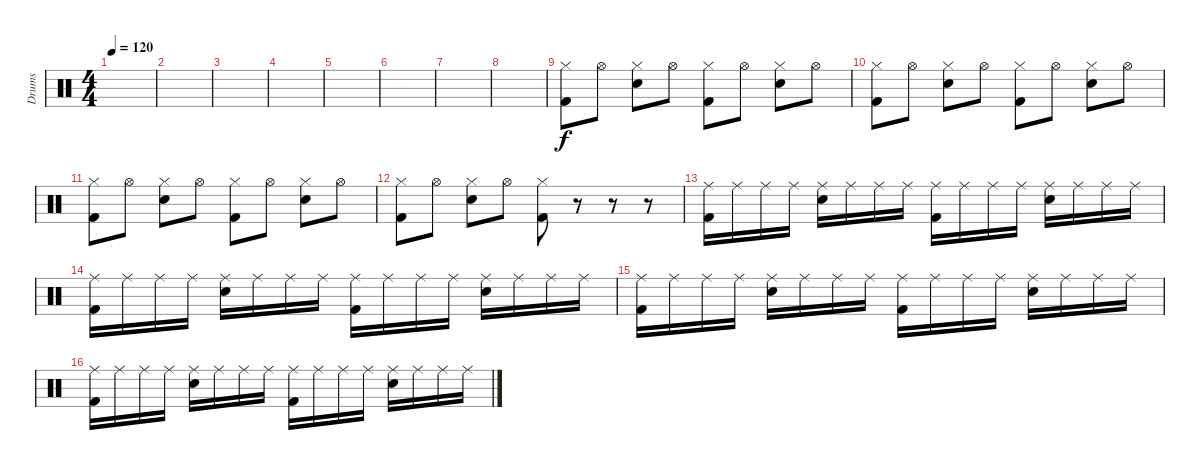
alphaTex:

\track ("Drums" "Drums") {instrument percussion}
\staff {score}
\articulation defaults
\ts (4 4)
\tempo 120
\clef neutral
\ks c
|
|
|
|
|
|
|
|
("Hi-Hat (closed)" "Kick (hit) 2").8 "Hi-Hat (open)".8 ("Hi-Hat (closed)" "Snare (hit) 2").8 "Hi-Hat (open)".8 ("Hi-Hat (closed)" "Kick (hit) 2").8 "Hi-Hat (open)".8 ("Hi-Hat (closed)" "Snare (hit) 2").8 "Hi-Hat (open)".8 |
("Hi-Hat (closed)" "Kick (hit) 2").8 "Hi-Hat (open)".8 ("Hi-Hat (closed)" "Snare (hit) 2").8 "Hi-Hat (open)".8 ("Hi-Hat (closed)" "Kick (hit) 2").8 "Hi-Hat (open)".8 ("Hi-Hat (closed)" "Snare (hit) 2").8 "Hi-Hat (open)".8 |
("Hi-Hat (closed)" "Kick (hit) 2").8 "Hi-Hat (open)".8 ("Hi-Hat (closed)" "Snare (hit) 2").8 "Hi-Hat (open)".8 ("Hi-Hat (closed)" "Kick (hit) 2").8 "Hi-Hat (open)".8 ("Hi-Hat (closed)" "Snare (hit) 2").8 "Hi-Hat (open)".8 |
("Hi-Hat (closed)" "Kick (hit) 2").8 "Hi-Hat (open)".8 ("Hi-Hat (closed)" "Snare (hit) 2").8 "Hi-Hat (open)".8 ("Hi-Hat (closed)" "Kick (hit) 2").8 r.8 r.8 r.8 |
("Ride (middle)" "Kick (hit) 2").16 "Ride (middle)".16 "Ride (middle)".16 "Ride (middle)".16 ("Ride (middle)" "Snare (hit) 2").16 "Ride (middle)".16 "Ride (middle)".16 "Ride (middle)".16 ("Ride (middle)" "Kick (hit) 2").16 "Ride (middle)".16 "Ride (middle)".16 "Ride (middle)".16 ("Ride (middle)" "Snare (hit) 2").16 "Ride (middle)".16 "Ride (middle)".16 "Ride (middle)".16 |
("Ride (middle)" "Kick (hit) 2").16 "Ride (middle)".16 "Ride (middle)".16 "Ride (middle)".16 ("Ride (middle)" "Snare (hit) 2").16 "Ride (middle)".16 "Ride (middle)".16 "Ride (middle)".16 ("Ride (middle)" "Kick (hit) 2").16 "Ride (middle)".16 "Ride (middle)".16 "Ride (middle)".16 ("Ride (middle)" "Snare (hit) 2").16 "Ride (middle)".16 "Ride (middle)".16 "Ride (middle)".16 |
("Ride (middle)" "Kick (hit) 2").16 "Ride (middle)".16 "Ride (middle)".16 "Ride (middle)".16 ("Ride (middle)" "Snare (hit) 2").16 "Ride (middle)".16 "Ride (middle)".16 "Ride (middle)".16 ("Ride (middle)" "Kick (hit) 2").16 "Ride (middle)".16 "Ride (middle)".16 "Ride (middle)".16 ("Ride (middle)" "Snare (hit) 2").16 "Ride (middle)".16 "Ride (middle)".16 "Ride (middle)".16 |
("Ride (middle)" "Kick (hit) 2").16 "Ride (middle)".16 "Ride (middle)".16 "Ride (middle)".16 ("Ride (middle)" "Snare (hit) 2").16 "Ride (middle)".16 "Ride (middle)".16 "Ride (middle)".16 ("Ride (middle)" "Kick (hit) 2").16 "Ride (middle)".16 "Ride (middle)".16 "Ride (middle)".16 ("Ride (middle)" "Snare (hit) 2").16 "Ride (middle)".16 "Ride (middle)".16 "Ride (middle)".16
